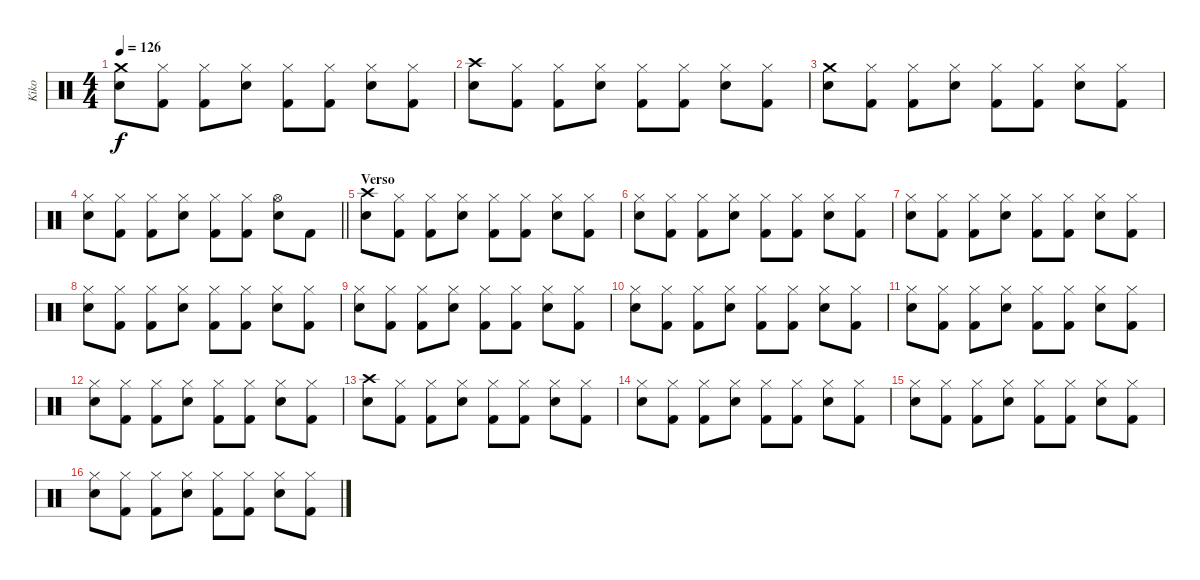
\track ("Kiko" "Kiko") {instrument percussion}
\staff {score}
\articulation defaults
\ts (4 4)
\tempo 126
\clef neutral
\ks c
("Crash medium (hit)" "Electric Snare (hit)").8{dy f} ("Hi-Hat (closed)" "Kick (hit) 2").8 ("Hi-Hat (closed)" "Kick (hit) 2").8 ("Hi-Hat (closed)" "Electric Snare (hit)").8 ("Hi-Hat (closed)" "Kick (hit) 2").8 ("Hi-Hat (closed)" "Kick (hit) 2").8 ("Hi-Hat (closed)" "Electric Snare (hit)").8 ("Hi-Hat (closed)" "Kick (hit) 2").8 |
("Crash high (hit)" "Electric Snare (hit)").8 ("Hi-Hat (closed)" "Kick (hit) 2").8 ("Hi-Hat (closed)" "Kick (hit) 2").8 ("Hi-Hat (closed)" "Electric Snare (hit)").8 ("Hi-Hat (closed)" "Kick (hit) 2").8 ("Hi-Hat (closed)" "Kick (hit) 2").8 ("Hi-Hat (closed)" "Electric Snare (hit)").8 ("Hi-Hat (closed)" "Kick (hit) 2").8 |
("Crash medium (hit)" "Electric Snare (hit)").8 ("Hi-Hat (closed)" "Kick (hit) 2").8 ("Hi-Hat (closed)" "Kick (hit) 2").8 ("Hi-Hat (closed)" "Electric Snare (hit)").8 ("Hi-Hat (closed)" "Kick (hit) 2").8 ("Hi-Hat (closed)" "Kick (hit) 2").8 ("Hi-Hat (closed)" "Electric Snare (hit)").8 ("Hi-Hat (closed)" "Kick (hit) 2").8 |
\barLineRight lightlight
("Hi-Hat (closed)" "Electric Snare (hit)").8 ("Hi-Hat (closed)" "Kick (hit) 2").8 ("Hi-Hat (closed)" "Kick (hit) 2").8 ("Hi-Hat (closed)" "Electric Snare (hit)").8 ("Hi-Hat (closed)" "Kick (hit) 2").8 ("Hi-Hat (closed)" "Kick (hit) 2").8 ("Hi-Hat (open)" "Electric Snare (hit)").8 "Kick (hit) 2".8 |
\section ("" "Verso")
("Crash high (hit)" "Electric Snare (hit)").8 ("Hi-Hat (closed)" "Kick (hit) 2").8 ("Hi-Hat (closed)" "Kick (hit) 2").8 ("Hi-Hat (closed)" "Electric Snare (hit)").8 ("Hi-Hat (closed)" "Kick (hit) 2").8 ("Hi-Hat (closed)" "Kick (hit) 2").8 ("Hi-Hat (closed)" "Electric Snare (hit)").8 ("Hi-Hat (closed)" "Kick (hit) 2").8 |
("Hi-Hat (closed)" "Electric Snare (hit)").8 ("Hi-Hat (closed)" "Kick (hit) 2").8 ("Hi-Hat (closed)" "Kick (hit) 2").8 ("Hi-Hat (closed)" "Electric Snare (hit)").8 ("Hi-Hat (closed)" "Kick (hit) 2").8 ("Hi-Hat (closed)" "Kick (hit) 2").8 ("Hi-Hat (closed)" "Electric Snare (hit)").8 ("Hi-Hat (closed)" "Kick (hit) 2").8 |
("Hi-Hat (closed)" "Electric Snare (hit)").8 ("Hi-Hat (closed)" "Kick (hit) 2").8 ("Hi-Hat (closed)" "Kick (hit) 2").8 ("Hi-Hat (closed)" "Electric Snare (hit)").8 ("Hi-Hat (closed)" "Kick (hit) 2").8 ("Hi-Hat (closed)" "Kick (hit) 2").8 ("Hi-Hat (closed)" "Electric Snare (hit)").8 ("Hi-Hat (closed)" "Kick (hit) 2").8 |
("Hi-Hat (closed)" "Electric Snare (hit)").8 ("Hi-Hat (closed)" "Kick (hit) 2").8 ("Hi-Hat (closed)" "Kick (hit) 2").8 ("Hi-Hat (closed)" "Electric Snare (hit)").8 ("Hi-Hat (closed)" "Kick (hit) 2").8 ("Hi-Hat (closed)" "Kick (hit) 2").8 ("Hi-Hat (closed)" "Electric Snare (hit)").8 ("Hi-Hat (closed)" "Kick (hit) 2").8 |
("Hi-Hat (closed)" "Electric Snare (hit)").8 ("Hi-Hat (closed)" "Kick (hit) 2").8 ("Hi-Hat (closed)" "Kick (hit) 2").8 ("Hi-Hat (closed)" "Electric Snare (hit)").8 ("Hi-Hat (closed)" "Kick (hit) 2").8 ("Hi-Hat (closed)" "Kick (hit) 2").8 ("Hi-Hat (closed)" "Electric Snare (hit)").8 ("Hi-Hat (closed)" "Kick (hit) 2").8 |
("Hi-Hat (closed)" "Electric Snare (hit)").8 ("Hi-Hat (closed)" "Kick (hit) 2").8 ("Hi-Hat (closed)" "Kick (hit) 2").8 ("Hi-Hat (closed)" "Electric Snare (hit)").8 ("Hi-Hat (closed)" "Kick (hit) 2").8 ("Hi-Hat (closed)" "Kick (hit) 2").8 ("Hi-Hat (closed)" "Electric Snare (hit)").8 ("Hi-Hat (closed)" "Kick (hit) 2").8 |
("Hi-Hat (closed)" "Electric Snare (hit)").8 ("Hi-Hat (closed)" "Kick (hit) 2").8 ("Hi-Hat (closed)" "Kick (hit) 2").8 ("Hi-Hat (closed)" "Electric Snare (hit)").8 ("Hi-Hat (closed)" "Kick (hit) 2").8 ("Hi-Hat (closed)" "Kick (hit) 2").8 ("Hi-Hat (closed)" "Electric Snare (hit)").8 ("Hi-Hat (closed)" "Kick (hit) 2").8 |
("Hi-Hat (closed)" "Electric Snare (hit)").8 ("Hi-Hat (closed)" "Kick (hit) 2").8 ("Hi-Hat (closed)" "Kick (hit) 2").8 ("Hi-Hat (closed)" "Electric Snare (hit)").8 ("Hi-Hat (closed)" "Kick (hit) 2").8 ("Hi-Hat (closed)" "Kick (hit) 2").8 ("Hi-Hat (closed)" "Electric Snare (hit)").8 ("Hi-Hat (closed)" "Kick (hit) 2").8 |
("Crash high (hit)" "Electric Snare (hit)").8 ("Hi-Hat (closed)" "Kick (hit) 2").8 ("Hi-Hat (closed)" "Kick (hit) 2").8 ("Hi-Hat (closed)" "Electric Snare (hit)").8 ("Hi-Hat (closed)" "Kick (hit) 2").8 ("Hi-Hat (closed)" "Kick (hit) 2").8 ("Hi-Hat (closed)" "Electric Snare (hit)").8 ("Hi-Hat (closed)" "Kick (hit) 2").8 |
("Hi-Hat (closed)" "Electric Snare (hit)").8 ("Hi-Hat (closed)" "Kick (hit) 2").8 ("Hi-Hat (closed)" "Kick (hit) 2").8 ("Hi-Hat (closed)" "Electric Snare (hit)").8 ("Hi-Hat (closed)" "Kick (hit) 2").8 ("Hi-Hat (closed)" "Kick (hit) 2").8 ("Hi-Hat (closed)" "Electric Snare (hit)").8 ("Hi-Hat (closed)" "Kick (hit) 2").8 |
("Hi-Hat (closed)" "Electric Snare (hit)").8 ("Hi-Hat (closed)" "Kick (hit) 2").8 ("Hi-Hat (closed)" "Kick (hit) 2").8 ("Hi-Hat (closed)" "Electric Snare (hit)").8 ("Hi-Hat (closed)" "Kick (hit) 2").8 ("Hi-Hat (closed)" "Kick (hit) 2").8 ("Hi-Hat (closed)" "Electric Snare (hit)").8 ("Hi-Hat (closed)" "Kick (hit) 2").8 |
("Hi-Hat (closed)" "Electric Snare (hit)").8 ("Hi-Hat (closed)" "Kick (hit) 2").8 ("Hi-Hat (closed)" "Kick (hit) 2").8 ("Hi-Hat (closed)" "Electric Snare (hit)").8 ("Hi-Hat (closed)" "Kick (hit) 2").8 ("Hi-Hat (closed)" "Kick (hit) 2").8 ("Hi-Hat (closed)" "Electric Snare (hit)").8 ("Hi-Hat (closed)" "Kick (hit) 2").8
